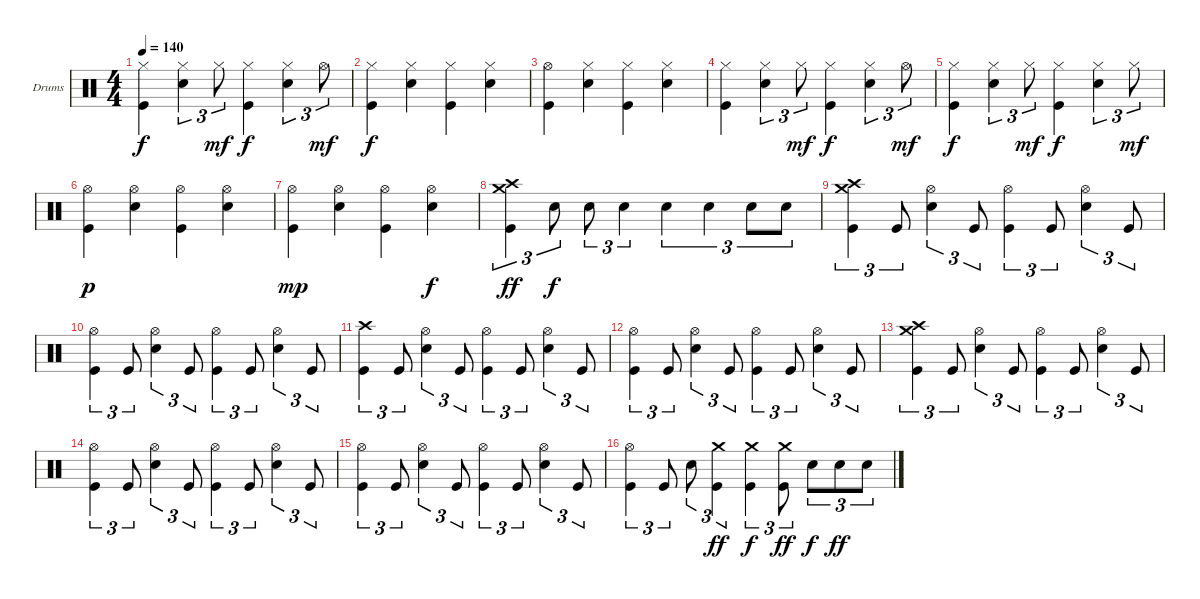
\defaultSystemsLayout 4
\bracketExtendMode groupsimilarinstruments
\firstSystemTrackNameOrientation horizontal
\otherSystemsTrackNameOrientation horizontal
\track ("Drumkit" "Drums") {instrument percussion}
\staff {score}
\articulation defaults
\ts (4 4)
\tempo 140
\clef neutral
\ks c
("Hi-Hat (closed)" "Kick (hit)").4{dy f} ("Hi-Hat (closed)" "Snare (hit) 2").4{tu (3 2)} "Hi-Hat (closed)".8{tu (3 2) dy mf} ("Hi-Hat (closed)" "Kick (hit)").4{dy f} ("Hi-Hat (closed)" "Snare (hit) 2").4{tu (3 2)} "Hi-Hat (open)".8{tu (3 2) dy mf} |
("Hi-Hat (closed)" "Kick (hit)").4{dy f} ("Hi-Hat (closed)" "Snare (hit) 2").4 ("Hi-Hat (closed)" "Kick (hit)").4 ("Hi-Hat (closed)" "Snare (hit) 2").4 |
("Hi-Hat (open)" "Kick (hit)").4 ("Hi-Hat (closed)" "Snare (hit) 2").4 ("Hi-Hat (closed)" "Kick (hit)").4 ("Hi-Hat (closed)" "Snare (hit) 2").4 |
("Hi-Hat (closed)" "Kick (hit)").4 ("Hi-Hat (closed)" "Snare (hit) 2").4{tu (3 2)} "Hi-Hat (closed)".8{tu (3 2) dy mf} ("Hi-Hat (closed)" "Kick (hit)").4{dy f} ("Hi-Hat (closed)" "Snare (hit) 2").4{tu (3 2)} "Hi-Hat (open)".8{tu (3 2) dy mf} |
("Hi-Hat (closed)" "Kick (hit)").4{dy f} ("Hi-Hat (closed)" "Snare (hit) 2").4{tu (3 2)} "Hi-Hat (closed)".8{tu (3 2) dy mf} ("Hi-Hat (closed)" "Kick (hit)").4{dy f} ("Hi-Hat (closed)" "Snare (hit) 2").4{tu (3 2)} "Hi-Hat (closed)".8{tu (3 2) dy mf} |
("Hi-Hat (open)" "Kick (hit)").4{dy p} ("Hi-Hat (open)" "Snare (hit) 2").4 ("Hi-Hat (open)" "Kick (hit)").4 ("Hi-Hat (open)" "Snare (hit) 2").4 |
("Hi-Hat (open)" "Kick (hit)").4{dy mp} ("Hi-Hat (open)" "Snare (hit) 2").4 ("Hi-Hat (open)" "Kick (hit)").4 ("Hi-Hat (open)" "Snare (hit) 2").4{dy f} |
("Crash medium (hit)" "Crash high (hit)" "Kick (hit)").4{tu (3 2) dy ff} "Snare (hit) 2".8{tu (3 2) dy f} "Snare (hit) 2".8{tu (3 2)} "Snare (hit) 2".4{tu (3 2)} "Snare (hit) 2".4{tu (3 2)} "Snare (hit) 2".4{tu (3 2)} "Snare (hit) 2".8{tu (3 2)} "Snare (hit) 2".8{tu (3 2)} |
("Crash medium (hit)" "Crash high (hit)" "Kick (hit)").4{tu (3 2)} "Kick (hit)".8{tu (3 2)} ("Hi-Hat (open)" "Snare (hit) 2").4{tu (3 2)} "Kick (hit)".8{tu (3 2)} ("Hi-Hat (open)" "Kick (hit)").4{tu (3 2)} "Kick (hit)".8{tu (3 2)} ("Hi-Hat (open)" "Snare (hit) 2").4{tu (3 2)} "Kick (hit)".8{tu (3 2)} |
("Hi-Hat (open)" "Kick (hit)").4{tu (3 2)} "Kick (hit)".8{tu (3 2)} ("Hi-Hat (open)" "Snare (hit) 2").4{tu (3 2)} "Kick (hit)".8{tu (3 2)} ("Hi-Hat (open)" "Kick (hit)").4{tu (3 2)} "Kick (hit)".8{tu (3 2)} ("Hi-Hat (open)" "Snare (hit) 2").4{tu (3 2)} "Kick (hit)".8{tu (3 2)} |
("Crash high (hit)" "Kick (hit)").4{tu (3 2)} "Kick (hit)".8{tu (3 2)} ("Hi-Hat (open)" "Snare (hit) 2").4{tu (3 2)} "Kick (hit)".8{tu (3 2)} ("Hi-Hat (open)" "Kick (hit)").4{tu (3 2)} "Kick (hit)".8{tu (3 2)} ("Hi-Hat (open)" "Snare (hit) 2").4{tu (3 2)} "Kick (hit)".8{tu (3 2)} |
("Hi-Hat (open)" "Kick (hit)").4{tu (3 2)} "Kick (hit)".8{tu (3 2)} ("Hi-Hat (open)" "Snare (hit) 2").4{tu (3 2)} "Kick (hit)".8{tu (3 2)} ("Hi-Hat (open)" "Kick (hit)").4{tu (3 2)} "Kick (hit)".8{tu (3 2)} ("Hi-Hat (open)" "Snare (hit) 2").4{tu (3 2)} "Kick (hit)".8{tu (3 2)} |
("Crash medium (hit)" "Crash high (hit)" "Kick (hit)").4{tu (3 2)} "Kick (hit)".8{tu (3 2)} ("Hi-Hat (open)" "Snare (hit) 2").4{tu (3 2)} "Kick (hit)".8{tu (3 2)} ("Hi-Hat (open)" "Kick (hit)").4{tu (3 2)} "Kick (hit)".8{tu (3 2)} ("Hi-Hat (open)" "Snare (hit) 2").4{tu (3 2)} "Kick (hit)".8{tu (3 2)} |
("Hi-Hat (open)" "Kick (hit)").4{tu (3 2)} "Kick (hit)".8{tu (3 2)} ("Hi-Hat (open)" "Snare (hit) 2").4{tu (3 2)} "Kick (hit)".8{tu (3 2)} ("Hi-Hat (open)" "Kick (hit)").4{tu (3 2)} "Kick (hit)".8{tu (3 2)} ("Hi-Hat (open)" "Snare (hit) 2").4{tu (3 2)} "Kick (hit)".8{tu (3 2)} |
("Hi-Hat (open)" "Kick (hit)").4{tu (3 2)} "Kick (hit)".8{tu (3 2)} ("Hi-Hat (open)" "Snare (hit) 2").4{tu (3 2)} "Kick (hit)".8{tu (3 2)} ("Hi-Hat (open)" "Kick (hit)").4{tu (3 2)} "Kick (hit)".8{tu (3 2)} ("Hi-Hat (open)" "Snare (hit) 2").4{tu (3 2)} "Kick (hit)".8{tu (3 2)} |
("Hi-Hat (open)" "Kick (hit)").4{tu (3 2)} "Kick (hit)".8{tu (3 2)} "Snare (hit) 2".8{tu (3 2)} ("Crash medium (hit)" "Kick (hit)").4{tu (3 2) dy ff} ("Crash medium (hit)" "Kick (hit)").4{tu (3 2) dy f} ("Crash medium (hit)" "Kick (hit)").8{tu (3 2) dy ff} "Snare (hit) 2".8{tu (3 2) dy f} "Snare (hit) 2".8{tu (3 2) dy ff} "Snare (hit) 2".8{tu (3 2)}
